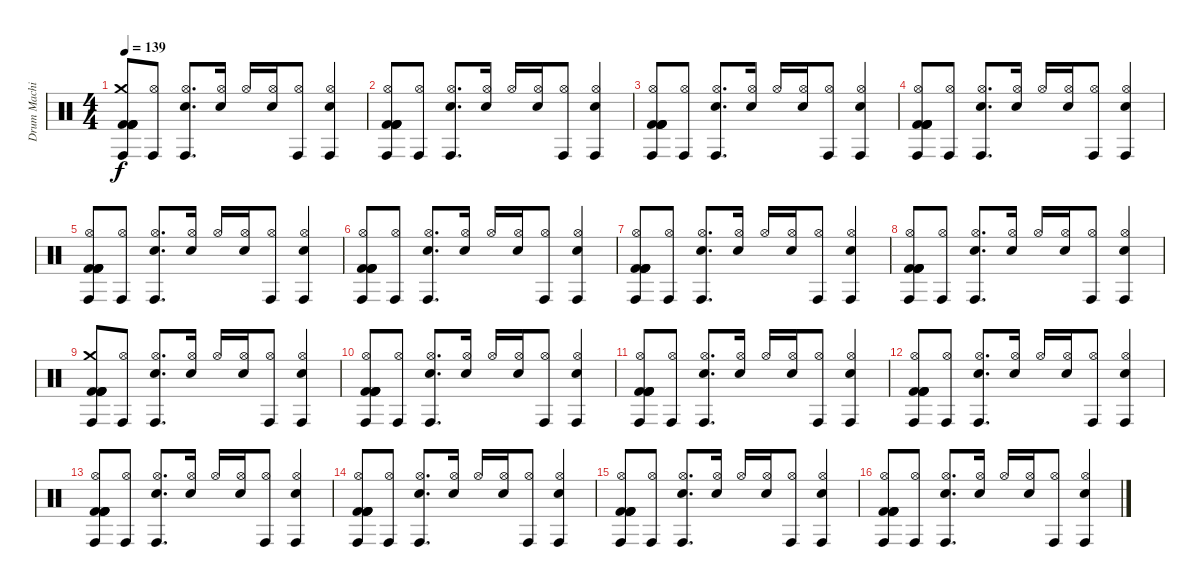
\track ("Drum Machine" "Drum Machi") {instrument percussion}
\staff {score}
\articulation defaults
\ts (4 4)
\tempo 139
\clef neutral
\ks c
("Conga high (hit)" "Crash medium (hit)" "Kick (hit) 2" "Kick (hit) 2" "Kick (hit) 2" "Kick (hit) 2").8{dy f} ("Conga high (hit)" "Hi-Hat (open)").8 ("Conga high (hit)" "Hi-Hat (open)" "Electric Snare (hit)").8{d} ("Hi-Hat (open)" "Electric Snare (hit)").16 "Hi-Hat (open)".16 ("Hi-Hat (open)" "Electric Snare (hit)").16 ("Conga high (hit)" "Hi-Hat (open)").8 ("Conga high (hit)" "Hi-Hat (open)" "Electric Snare (hit)").4 |
("Conga high (hit)" "Hi-Hat (open)" "Kick (hit) 2" "Kick (hit) 2" "Kick (hit) 2" "Kick (hit) 2").8 ("Conga high (hit)" "Hi-Hat (open)").8 ("Conga high (hit)" "Hi-Hat (open)" "Electric Snare (hit)").8{d} ("Hi-Hat (open)" "Electric Snare (hit)").16 "Hi-Hat (open)".16 ("Hi-Hat (open)" "Electric Snare (hit)").16 ("Conga high (hit)" "Hi-Hat (open)").8 ("Conga high (hit)" "Hi-Hat (open)" "Electric Snare (hit)").4 |
("Conga high (hit)" "Hi-Hat (open)" "Kick (hit) 2" "Kick (hit) 2" "Kick (hit) 2" "Kick (hit) 2").8 ("Conga high (hit)" "Hi-Hat (open)").8 ("Conga high (hit)" "Hi-Hat (open)" "Electric Snare (hit)").8{d} ("Hi-Hat (open)" "Electric Snare (hit)").16 "Hi-Hat (open)".16 ("Hi-Hat (open)" "Electric Snare (hit)").16 ("Conga high (hit)" "Hi-Hat (open)").8 ("Conga high (hit)" "Hi-Hat (open)" "Electric Snare (hit)").4 |
("Conga high (hit)" "Hi-Hat (open)" "Kick (hit) 2" "Kick (hit) 2" "Kick (hit) 2" "Kick (hit) 2").8 ("Conga high (hit)" "Hi-Hat (open)").8 ("Conga high (hit)" "Hi-Hat (open)" "Electric Snare (hit)").8{d} ("Hi-Hat (open)" "Electric Snare (hit)").16 "Hi-Hat (open)".16 ("Hi-Hat (open)" "Electric Snare (hit)").16 ("Conga high (hit)" "Hi-Hat (open)").8 ("Conga high (hit)" "Hi-Hat (open)" "Electric Snare (hit)").4 |
("Conga high (hit)" "Hi-Hat (open)" "Kick (hit) 2" "Kick (hit) 2" "Kick (hit) 2" "Kick (hit) 2").8 ("Conga high (hit)" "Hi-Hat (open)").8 ("Conga high (hit)" "Hi-Hat (open)" "Electric Snare (hit)").8{d} ("Hi-Hat (open)" "Electric Snare (hit)").16 "Hi-Hat (open)".16 ("Hi-Hat (open)" "Electric Snare (hit)").16 ("Conga high (hit)" "Hi-Hat (open)").8 ("Conga high (hit)" "Hi-Hat (open)" "Electric Snare (hit)").4 |
("Conga high (hit)" "Hi-Hat (open)" "Kick (hit) 2" "Kick (hit) 2" "Kick (hit) 2" "Kick (hit) 2").8 ("Conga high (hit)" "Hi-Hat (open)").8 ("Conga high (hit)" "Hi-Hat (open)" "Electric Snare (hit)").8{d} ("Hi-Hat (open)" "Electric Snare (hit)").16 "Hi-Hat (open)".16 ("Hi-Hat (open)" "Electric Snare (hit)").16 ("Conga high (hit)" "Hi-Hat (open)").8 ("Conga high (hit)" "Hi-Hat (open)" "Electric Snare (hit)").4 |
("Conga high (hit)" "Hi-Hat (open)" "Kick (hit) 2" "Kick (hit) 2" "Kick (hit) 2" "Kick (hit) 2").8 ("Conga high (hit)" "Hi-Hat (open)").8 ("Conga high (hit)" "Hi-Hat (open)" "Electric Snare (hit)").8{d} ("Hi-Hat (open)" "Electric Snare (hit)").16 "Hi-Hat (open)".16 ("Hi-Hat (open)" "Electric Snare (hit)").16 ("Conga high (hit)" "Hi-Hat (open)").8 ("Conga high (hit)" "Hi-Hat (open)" "Electric Snare (hit)").4 |
("Conga high (hit)" "Hi-Hat (open)" "Kick (hit) 2" "Kick (hit) 2" "Kick (hit) 2" "Kick (hit) 2").8 ("Conga high (hit)" "Hi-Hat (open)").8 ("Conga high (hit)" "Hi-Hat (open)" "Electric Snare (hit)").8{d} ("Hi-Hat (open)" "Electric Snare (hit)").16 "Hi-Hat (open)".16 ("Hi-Hat (open)" "Electric Snare (hit)").16 ("Conga high (hit)" "Hi-Hat (open)").8 ("Conga high (hit)" "Hi-Hat (open)" "Electric Snare (hit)").4 |
("Conga high (hit)" "Crash medium (hit)" "Kick (hit) 2" "Kick (hit) 2" "Kick (hit) 2" "Kick (hit) 2").8 ("Conga high (hit)" "Hi-Hat (open)").8 ("Conga high (hit)" "Hi-Hat (open)" "Electric Snare (hit)").8{d} ("Hi-Hat (open)" "Electric Snare (hit)").16 "Hi-Hat (open)".16 ("Hi-Hat (open)" "Electric Snare (hit)").16 ("Conga high (hit)" "Hi-Hat (open)").8 ("Conga high (hit)" "Hi-Hat (open)" "Electric Snare (hit)").4 |
("Conga high (hit)" "Hi-Hat (open)" "Kick (hit) 2" "Kick (hit) 2" "Kick (hit) 2" "Kick (hit) 2").8 ("Conga high (hit)" "Hi-Hat (open)").8 ("Conga high (hit)" "Hi-Hat (open)" "Electric Snare (hit)").8{d} ("Hi-Hat (open)" "Electric Snare (hit)").16 "Hi-Hat (open)".16 ("Hi-Hat (open)" "Electric Snare (hit)").16 ("Conga high (hit)" "Hi-Hat (open)").8 ("Conga high (hit)" "Hi-Hat (open)" "Electric Snare (hit)").4 |
("Conga high (hit)" "Hi-Hat (open)" "Kick (hit) 2" "Kick (hit) 2" "Kick (hit) 2" "Kick (hit) 2").8 ("Conga high (hit)" "Hi-Hat (open)").8 ("Conga high (hit)" "Hi-Hat (open)" "Electric Snare (hit)").8{d} ("Hi-Hat (open)" "Electric Snare (hit)").16 "Hi-Hat (open)".16 ("Hi-Hat (open)" "Electric Snare (hit)").16 ("Conga high (hit)" "Hi-Hat (open)").8 ("Conga high (hit)" "Hi-Hat (open)" "Electric Snare (hit)").4 |
("Conga high (hit)" "Hi-Hat (open)" "Kick (hit) 2" "Kick (hit) 2" "Kick (hit) 2" "Kick (hit) 2").8 ("Conga high (hit)" "Hi-Hat (open)").8 ("Conga high (hit)" "Hi-Hat (open)" "Electric Snare (hit)").8{d} ("Hi-Hat (open)" "Electric Snare (hit)").16 "Hi-Hat (open)".16 ("Hi-Hat (open)" "Electric Snare (hit)").16 ("Conga high (hit)" "Hi-Hat (open)").8 ("Conga high (hit)" "Hi-Hat (open)" "Electric Snare (hit)").4 |
("Conga high (hit)" "Hi-Hat (open)" "Kick (hit) 2" "Kick (hit) 2" "Kick (hit) 2" "Kick (hit) 2").8 ("Conga high (hit)" "Hi-Hat (open)").8 ("Conga high (hit)" "Hi-Hat (open)" "Electric Snare (hit)").8{d} ("Hi-Hat (open)" "Electric Snare (hit)").16 "Hi-Hat (open)".16 ("Hi-Hat (open)" "Electric Snare (hit)").16 ("Conga high (hit)" "Hi-Hat (open)").8 ("Conga high (hit)" "Hi-Hat (open)" "Electric Snare (hit)").4 |
("Conga high (hit)" "Hi-Hat (open)" "Kick (hit) 2" "Kick (hit) 2" "Kick (hit) 2" "Kick (hit) 2").8 ("Conga high (hit)" "Hi-Hat (open)").8 ("Conga high (hit)" "Hi-Hat (open)" "Electric Snare (hit)").8{d} ("Hi-Hat (open)" "Electric Snare (hit)").16 "Hi-Hat (open)".16 ("Hi-Hat (open)" "Electric Snare (hit)").16 ("Conga high (hit)" "Hi-Hat (open)").8 ("Conga high (hit)" "Hi-Hat (open)" "Electric Snare (hit)").4 |
("Conga high (hit)" "Hi-Hat (open)" "Kick (hit) 2" "Kick (hit) 2" "Kick (hit) 2" "Kick (hit) 2").8 ("Conga high (hit)" "Hi-Hat (open)").8 ("Conga high (hit)" "Hi-Hat (open)" "Electric Snare (hit)").8{d} ("Hi-Hat (open)" "Electric Snare (hit)").16 "Hi-Hat (open)".16 ("Hi-Hat (open)" "Electric Snare (hit)").16 ("Conga high (hit)" "Hi-Hat (open)").8 ("Conga high (hit)" "Hi-Hat (open)" "Electric Snare (hit)").4 |
("Conga high (hit)" "Hi-Hat (open)" "Kick (hit) 2" "Kick (hit) 2" "Kick (hit) 2" "Kick (hit) 2").8 ("Conga high (hit)" "Hi-Hat (open)").8 ("Conga high (hit)" "Hi-Hat (open)" "Electric Snare (hit)").8{d} ("Hi-Hat (open)" "Electric Snare (hit)").16 "Hi-Hat (open)".16 ("Hi-Hat (open)" "Electric Snare (hit)").16 ("Conga high (hit)" "Hi-Hat (open)").8 ("Conga high (hit)" "Hi-Hat (open)" "Electric Snare (hit)").4
